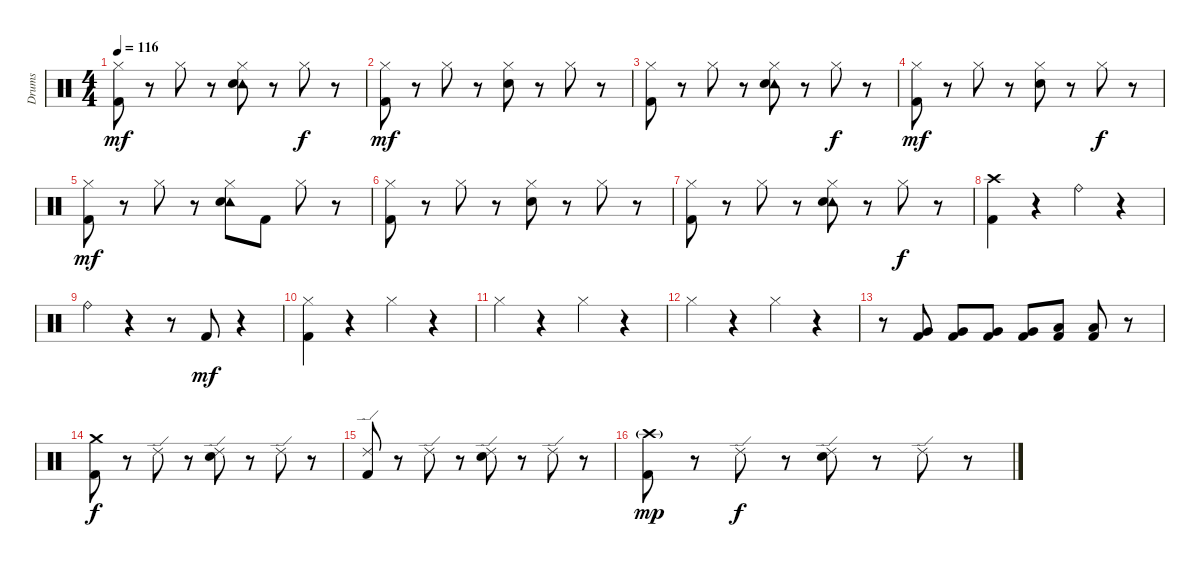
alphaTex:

\track ("Drums" "Drums") {instrument percussion}
\staff {score}
\articulation defaults
\ts (4 4)
\tempo 116
\clef neutral
\ks c
("Hi-Hat (closed)" "Kick (hit) 2").8{dy mf} r.8 "Hi-Hat (closed)".8 r.8 ("Tambourine (hit)" "Hi-Hat (closed)" "Snare (hit) 2").8 r.8 "Hi-Hat (closed)".8{dy f} r.8 |
("Hi-Hat (closed)" "Kick (hit) 2").8{dy mf} r.8 "Hi-Hat (closed)".8 r.8 ("Hi-Hat (closed)" "Snare (hit) 2").8 r.8 "Hi-Hat (closed)".8 r.8 |
("Hi-Hat (closed)" "Kick (hit) 2").8 r.8 "Hi-Hat (closed)".8 r.8 ("Tambourine (hit)" "Hi-Hat (closed)" "Snare (hit) 2").8 r.8 "Hi-Hat (closed)".8{dy f} r.8 |
("Hi-Hat (closed)" "Kick (hit) 2").8{dy mf} r.8 "Hi-Hat (closed)".8 r.8 ("Hi-Hat (closed)" "Snare (hit) 2").8 r.8 "Hi-Hat (closed)".8{dy f} r.8 |
("Hi-Hat (closed)" "Kick (hit) 2").8{dy mf} r.8 "Hi-Hat (closed)".8 r.8 ("Tambourine (hit)" "Hi-Hat (closed)" "Snare (hit) 2").8 "Kick (hit) 2".8 "Hi-Hat (closed)".8 r.8 |
("Hi-Hat (closed)" "Kick (hit) 2").8 r.8 "Hi-Hat (closed)".8 r.8 ("Hi-Hat (closed)" "Snare (hit) 2").8 r.8 "Hi-Hat (closed)".8 r.8 |
("Hi-Hat (closed)" "Kick (hit) 2").8 r.8 "Hi-Hat (closed)".8 r.8 ("Tambourine (hit)" "Hi-Hat (closed)" "Snare (hit) 2").8 r.8 "Hi-Hat (closed)".8{dy f} r.8 |
("Crash high (hit)" "Kick (hit) 2").4 r.4 "Ride (bell)".4 r.4 |
"Ride (bell)".4 r.4 r.8 "Kick (hit) 2".8{dy mf} r.4 |
("Hi-Hat (closed)" "Kick (hit) 2").4 r.4 "Hi-Hat (closed)".4 r.4 |
"Hi-Hat (closed)".4 r.4 "Hi-Hat (closed)".4 r.4 |
"Hi-Hat (closed)".4 r.4 "Hi-Hat (closed)".4 r.4 |
r.8 ("Very Low Tom (hit)" "Kick (hit) 2").8 ("Very Low Tom (hit)" "Kick (hit) 2").8 ("Very Low Tom (hit)" "Kick (hit) 2").8 ("Very Low Tom (hit)" "Kick (hit) 2").8 ("Low Floor Tom (hit)" "Kick (hit) 2").8 ("Low Floor Tom (hit)" "Kick (hit) 2").8 r.8 |
("Crash medium (hit)" "Kick (hit) 2").8{dy f} r.8 "Ride (edge) 2".8 r.8 ("Ride (edge) 2" "Snare (hit) 2").8 r.8 "Ride (edge) 2".8 r.8 |
("Ride (edge) 2" "Kick (hit) 2").8 r.8 "Ride (edge) 2".8 r.8 ("Ride (edge) 2" "Snare (hit) 2").8 r.8 "Ride (edge) 2".8 r.8 |
("Crash high (hit)"{g} "Kick (hit) 2").8{dy mp} r.8 "Ride (edge) 2".8{dy f} r.8 ("Ride (edge) 2" "Snare (hit) 2").8 r.8 "Ride (edge) 2".8 r.8
